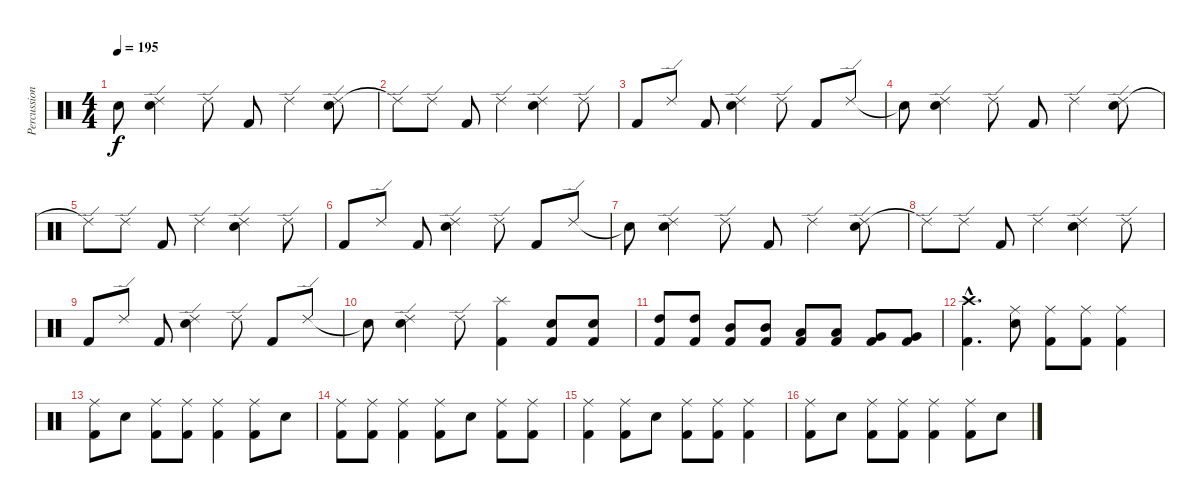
\track ("Percussion" "Percussion") {instrument percussion}
\staff {score}
\articulation defaults
\ts (4 4)
\tempo 195
\clef neutral
\ks c "Snare (hit)"{t}.8{dy f}
("Ride (edge) 2" "Snare (hit) 2").4 "Ride (edge) 2".8 "Kick (hit) 2".8 "Ride (edge) 2".4 ("Ride (edge) 2" "Snare (hit) 2").8 |
"Ride (edge) 2"{t}.8 "Ride (edge) 2".8 "Kick (hit) 2".8 "Ride (edge) 2".4 ("Ride (edge) 2" "Snare (hit) 2").4 "Ride (edge) 2".8 |
"Kick (hit) 2".8 "Ride (edge) 2".8 "Kick (hit) 2".8 ("Ride (edge) 2" "Snare (hit) 2").4 "Ride (edge) 2".8 "Kick (hit) 2".8 "Ride (edge) 2".8 |
"Snare (hit)"{t}.8 ("Ride (edge) 2" "Snare (hit) 2").4 "Ride (edge) 2".8 "Kick (hit) 2".8 "Ride (edge) 2".4 ("Ride (edge) 2" "Snare (hit) 2").8 |
"Ride (edge) 2"{t}.8 "Ride (edge) 2".8 "Kick (hit) 2".8 "Ride (edge) 2".4 ("Ride (edge) 2" "Snare (hit) 2").4 "Ride (edge) 2".8 |
"Kick (hit) 2".8 "Ride (edge) 2".8 "Kick (hit) 2".8 ("Ride (edge) 2" "Snare (hit) 2").4 "Ride (edge) 2".8 "Kick (hit) 2".8 "Ride (edge) 2".8 |
"Snare (hit)"{t}.8 ("Ride (edge) 2" "Snare (hit) 2").4 "Ride (edge) 2".8 "Kick (hit) 2".8 "Ride (edge) 2".4 ("Ride (edge) 2" "Snare (hit) 2").8 |
"Ride (edge) 2"{t}.8 "Ride (edge) 2".8 "Kick (hit) 2".8 "Ride (edge) 2".4 ("Ride (edge) 2" "Snare (hit) 2").4 "Ride (edge) 2".8 |
"Kick (hit) 2".8 "Ride (edge) 2".8 "Kick (hit) 2".8 ("Ride (edge) 2" "Snare (hit) 2").4 "Ride (edge) 2".8 "Kick (hit) 2".8 "Ride (edge) 2".8 |
"Snare (hit)"{t}.8 ("Ride (edge) 2" "Snare (hit) 2").4 "Ride (edge) 2".8 ("Splash (hit)" "Kick (hit) 2").4 ("Snare (hit) 2" "Kick (hit) 2").8 ("Snare (hit) 2" "Kick (hit) 2").8 |
("High Tom (hit)" "Kick (hit) 2").8 ("High Tom (hit)" "Kick (hit) 2").8 ("Mid Tom (hit)" "Kick (hit) 2").8 ("Mid Tom (hit)" "Kick (hit) 2").8 ("Low Tom (hit)" "Kick (hit) 2").8 ("Low Tom (hit)" "Kick (hit) 2").8 ("Very Low Tom (hit)" "Kick (hit) 2").8 ("Very Low Tom (hit)" "Kick (hit) 2").8 |
("Crash high (hit)"{hac} "Kick (hit) 2"{hac}).4{d} ("Ride (middle)" "Snare (hit) 2").8 ("Ride (middle)" "Kick (hit) 2").8 ("Ride (middle)" "Kick (hit) 2").8 ("Ride (middle)" "Kick (hit) 2").4 |
("Ride (middle)" "Kick (hit) 2").8 "Snare (hit) 2".8 ("Ride (middle)" "Kick (hit) 2").8 ("Ride (middle)" "Kick (hit) 2").8 ("Ride (middle)" "Kick (hit) 2").4 ("Ride (middle)" "Kick (hit) 2").8 "Snare (hit) 2".8 |
("Ride (middle)" "Kick (hit) 2").8 ("Ride (middle)" "Kick (hit) 2").8 ("Ride (middle)" "Kick (hit) 2").4 ("Ride (middle)" "Kick (hit) 2").8 "Snare (hit) 2".8 ("Ride (middle)" "Kick (hit) 2").8 ("Ride (middle)" "Kick (hit) 2").8 |
("Ride (middle)" "Kick (hit) 2").4 ("Ride (middle)" "Kick (hit) 2").8 "Snare (hit) 2".8 ("Ride (middle)" "Kick (hit) 2").8 ("Ride (middle)" "Kick (hit) 2").8 ("Ride (middle)" "Kick (hit) 2").4 |
("Ride (middle)" "Kick (hit) 2").8 "Snare (hit) 2".8 ("Ride (middle)" "Kick (hit) 2").8 ("Ride (middle)" "Kick (hit) 2").8 ("Ride (middle)" "Kick (hit) 2").4 ("Ride (middle)" "Kick (hit) 2").8 "Snare (hit) 2".8
